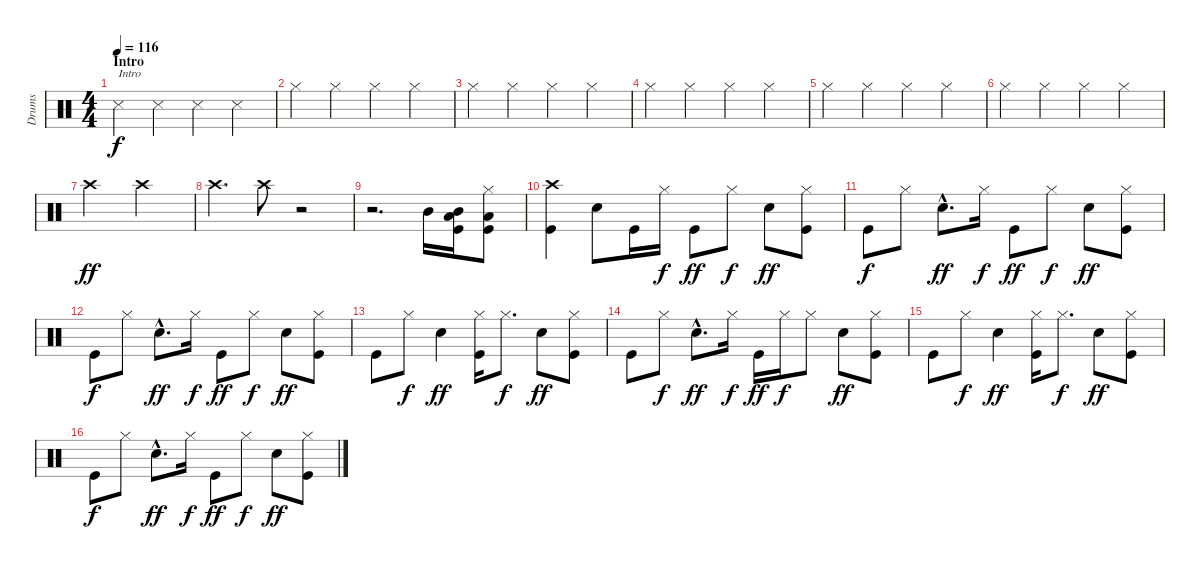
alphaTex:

\track ("Drums" "Drums") {instrument percussion}
\staff {score}
\articulation defaults
\ts (4 4)
\section ("" "Intro")
\tempo 116
\clef neutral
\ks c "Snare (side stick) 3".4{txt "Intro" dy f volume 10} "Snare (side stick) 3".4 "Snare (side stick) 3".4 "Snare (side stick) 3".4
|
"Hi-Hat (closed)".4 "Hi-Hat (closed)".4 "Hi-Hat (closed)".4 "Hi-Hat (closed)".4 |
"Hi-Hat (closed)".4 "Hi-Hat (closed)".4 "Hi-Hat (closed)".4 "Hi-Hat (closed)".4 |
"Hi-Hat (closed)".4 "Hi-Hat (closed)".4 "Hi-Hat (closed)".4 "Hi-Hat (closed)".4 |
"Hi-Hat (closed)".4 "Hi-Hat (closed)".4 "Hi-Hat (closed)".4 "Hi-Hat (closed)".4 |
"Hi-Hat (closed)".4 "Hi-Hat (closed)".4 "Hi-Hat (closed)".4 "Hi-Hat (closed)".4 |
"Crash high (hit)".2{dy ff} "Crash high (hit)".2 |
"Crash high (hit)".4{d} "Crash high (hit)".8 r.2 |
r.2{d} "Mid Tom (hit)".16 ("Mid Tom (hit)" "Low Floor Tom (hit)" "Kick (hit)").16 ("Hi-Hat (closed)" "Low Floor Tom (hit)" "Kick (hit)").8 |
("Crash high (hit)" "Kick (hit)").4 "Snare (hit) 2".8 "Kick (hit)".16 "Hi-Hat (closed)".16{dy f} "Kick (hit)".8{dy ff} "Hi-Hat (closed)".8{dy f} "Snare (hit) 2".8{dy ff} ("Hi-Hat (closed)" "Kick (hit)").8 |
"Kick (hit)".8{dy f} "Hi-Hat (closed)".8 "Snare (hit) 2"{hac}.8{d dy ff} "Hi-Hat (closed)".16{dy f} "Kick (hit)".8{dy ff} "Hi-Hat (closed)".8{dy f} "Snare (hit) 2".8{dy ff} ("Hi-Hat (closed)" "Kick (hit)").8 |
"Kick (hit)".8{dy f} "Hi-Hat (closed)".8 "Snare (hit) 2"{hac}.8{d dy ff} "Hi-Hat (closed)".16{dy f} "Kick (hit)".8{dy ff} "Hi-Hat (closed)".8{dy f} "Snare (hit) 2".8{dy ff} ("Hi-Hat (closed)" "Kick (hit)").8 |
"Kick (hit)".8 "Hi-Hat (closed)".8{dy f} "Snare (hit) 2".4{dy ff} ("Hi-Hat (closed)" "Kick (hit)").16 "Hi-Hat (closed)".8{d dy f} "Snare (hit) 2".8{dy ff} ("Hi-Hat (closed)" "Kick (hit)").8 |
"Kick (hit)".8 "Hi-Hat (closed)".8{dy f} "Snare (hit) 2"{hac}.8{d dy ff} "Hi-Hat (closed)".16{dy f} "Kick (hit)".16{dy ff} "Hi-Hat (closed)".16{dy f} "Hi-Hat (closed)".8 "Snare (hit) 2".8{dy ff} ("Hi-Hat (closed)" "Kick (hit)").8 |
"Kick (hit)".8 "Hi-Hat (closed)".8{dy f} "Snare (hit) 2".4{dy ff} ("Hi-Hat (closed)" "Kick (hit)").16 "Hi-Hat (closed)".8{d dy f} "Snare (hit) 2".8{dy ff} ("Hi-Hat (closed)" "Kick (hit)").8 |
"Kick (hit)".8{dy f} "Hi-Hat (closed)".8 "Snare (hit) 2"{hac}.8{d dy ff} "Hi-Hat (closed)".16{dy f} "Kick (hit)".8{dy ff} "Hi-Hat (closed)".8{dy f} "Snare (hit) 2".8{dy ff} ("Hi-Hat (closed)" "Kick (hit)").8
